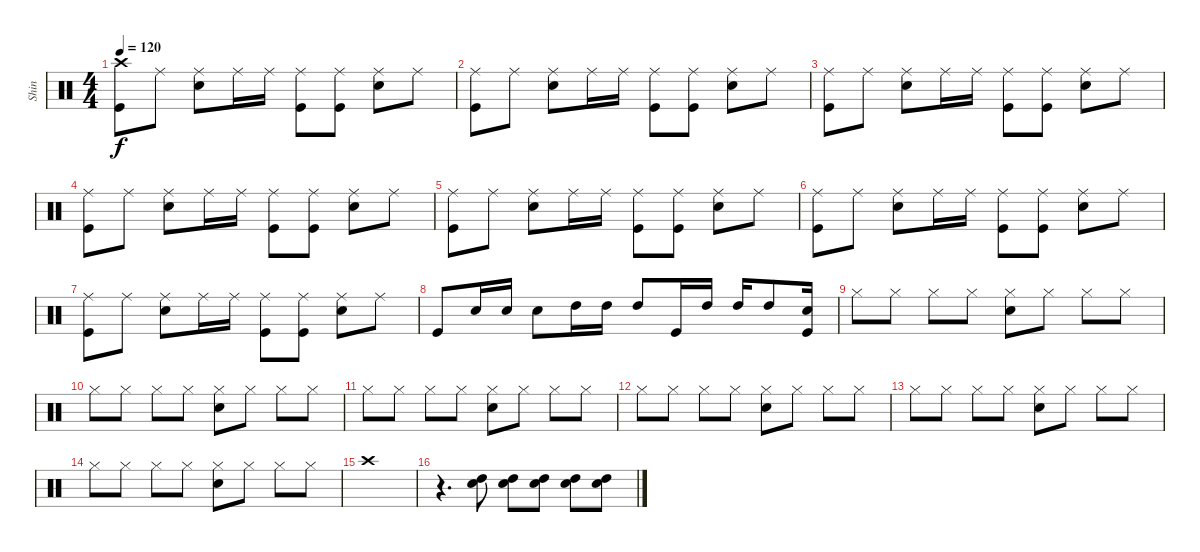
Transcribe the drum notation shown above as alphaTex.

\track ("Shin" "Shin") {instrument percussion}
\staff {score}
\articulation defaults
\ts (4 4)
\tempo 120
\clef neutral
\ks c
("Crash high (hit)" "Kick (hit)").8{dy f} "Ride (middle)".8 ("Ride (middle)" "Electric Snare (hit)").8 "Ride (middle)".16 "Ride (middle)".16 ("Ride (middle)" "Kick (hit)").8 ("Ride (middle)" "Kick (hit)").8 ("Ride (middle)" "Electric Snare (hit)").8 "Ride (middle)".8 |
("Ride (middle)" "Kick (hit)").8 "Ride (middle)".8 ("Ride (middle)" "Electric Snare (hit)").8 "Ride (middle)".16 "Ride (middle)".16 ("Ride (middle)" "Kick (hit)").8 ("Ride (middle)" "Kick (hit)").8 ("Ride (middle)" "Electric Snare (hit)").8 "Ride (middle)".8 |
("Ride (middle)" "Kick (hit)").8 "Ride (middle)".8 ("Ride (middle)" "Electric Snare (hit)").8 "Ride (middle)".16 "Ride (middle)".16 ("Ride (middle)" "Kick (hit)").8 ("Ride (middle)" "Kick (hit)").8 ("Ride (middle)" "Electric Snare (hit)").8 "Ride (middle)".8 |
("Ride (middle)" "Kick (hit)").8 "Ride (middle)".8 ("Ride (middle)" "Electric Snare (hit)").8 "Ride (middle)".16 "Ride (middle)".16 ("Ride (middle)" "Kick (hit)").8 ("Ride (middle)" "Kick (hit)").8 ("Ride (middle)" "Electric Snare (hit)").8 "Ride (middle)".8 |
("Ride (middle)" "Kick (hit)").8 "Ride (middle)".8 ("Ride (middle)" "Electric Snare (hit)").8 "Ride (middle)".16 "Ride (middle)".16 ("Ride (middle)" "Kick (hit)").8 ("Ride (middle)" "Kick (hit)").8 ("Ride (middle)" "Electric Snare (hit)").8 "Ride (middle)".8 |
("Ride (middle)" "Kick (hit)").8 "Ride (middle)".8 ("Ride (middle)" "Electric Snare (hit)").8 "Ride (middle)".16 "Ride (middle)".16 ("Ride (middle)" "Kick (hit)").8 ("Ride (middle)" "Kick (hit)").8 ("Ride (middle)" "Electric Snare (hit)").8 "Ride (middle)".8 |
("Ride (middle)" "Kick (hit)").8 "Ride (middle)".8 ("Ride (middle)" "Electric Snare (hit)").8 "Ride (middle)".16 "Ride (middle)".16 ("Ride (middle)" "Kick (hit)").8 ("Ride (middle)" "Kick (hit)").8 ("Ride (middle)" "Electric Snare (hit)").8 "Ride (middle)".8 |
"Kick (hit)".8 "Electric Snare (hit)".16 "Electric Snare (hit)".16 "Electric Snare (hit)".8 "High Tom (hit)".16 "High Tom (hit)".16 "High Tom (hit)".8 "Kick (hit)".16 "High Tom (hit)".16 "High Tom (hit)".16 "High Tom (hit)".8 ("Electric Snare (hit)" "Kick (hit)").16 |
"Hi-Hat (closed)".8 "Hi-Hat (closed)".8 "Hi-Hat (closed)".8 "Hi-Hat (closed)".8 ("Hi-Hat (closed)" "Electric Snare (hit)").8 "Hi-Hat (closed)".8 "Hi-Hat (closed)".8 "Hi-Hat (closed)".8 |
"Hi-Hat (closed)".8 "Hi-Hat (closed)".8 "Hi-Hat (closed)".8 "Hi-Hat (closed)".8 ("Hi-Hat (closed)" "Electric Snare (hit)").8 "Hi-Hat (closed)".8 "Hi-Hat (closed)".8 "Hi-Hat (closed)".8 |
"Hi-Hat (closed)".8 "Hi-Hat (closed)".8 "Hi-Hat (closed)".8 "Hi-Hat (closed)".8 ("Hi-Hat (closed)" "Electric Snare (hit)").8 "Hi-Hat (closed)".8 "Hi-Hat (closed)".8 "Hi-Hat (closed)".8 |
"Hi-Hat (closed)".8 "Hi-Hat (closed)".8 "Hi-Hat (closed)".8 "Hi-Hat (closed)".8 ("Hi-Hat (closed)" "Electric Snare (hit)").8 "Hi-Hat (closed)".8 "Hi-Hat (closed)".8 "Hi-Hat (closed)".8 |
"Hi-Hat (closed)".8 "Hi-Hat (closed)".8 "Hi-Hat (closed)".8 "Hi-Hat (closed)".8 ("Hi-Hat (closed)" "Electric Snare (hit)").8 "Hi-Hat (closed)".8 "Hi-Hat (closed)".8 "Hi-Hat (closed)".8 |
"Hi-Hat (closed)".8 "Hi-Hat (closed)".8 "Hi-Hat (closed)".8 "Hi-Hat (closed)".8 ("Hi-Hat (closed)" "Electric Snare (hit)").8 "Hi-Hat (closed)".8 "Hi-Hat (closed)".8 "Hi-Hat (closed)".8 |
"Crash high (hit)".1 |
r.4{d} ("Electric Snare (hit)" "High Tom (hit)").8 ("Electric Snare (hit)" "High Tom (hit)").8 ("Electric Snare (hit)" "High Tom (hit)").8 ("Electric Snare (hit)" "High Tom (hit)").8 ("Electric Snare (hit)" "High Tom (hit)").8
